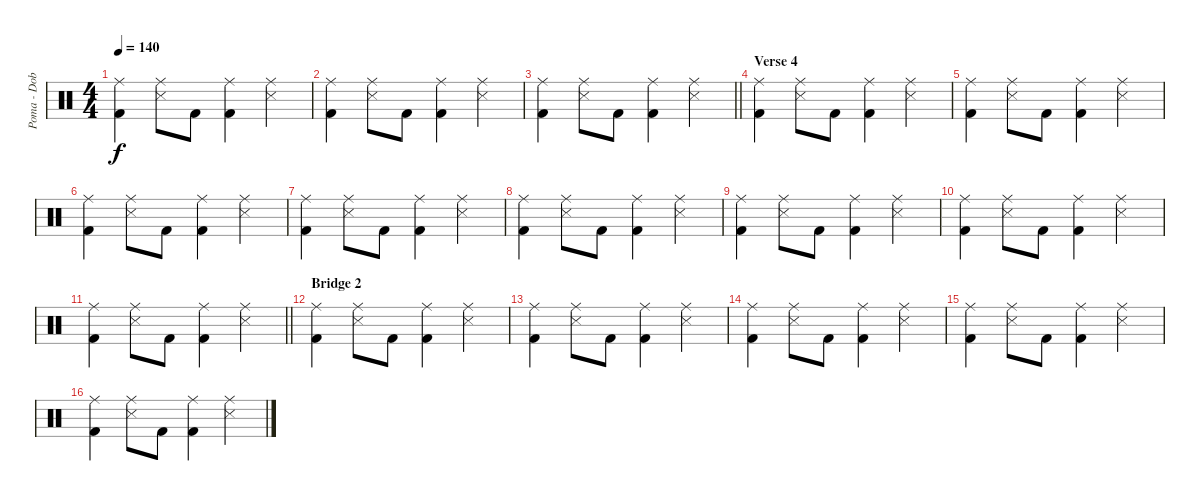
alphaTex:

\track ("Poma - Dob" "Poma - Dob") {instrument percussion}
\staff {score}
\articulation defaults
\ts (4 4)
\tempo 140
\clef neutral
\ks c
("Ride (middle)" "Kick (hit) 2").4{dy f} ("Ride (middle)" "Snare (side stick) 3").8 "Kick (hit) 2".8 ("Ride (middle)" "Kick (hit) 2").4 ("Ride (middle)" "Snare (side stick) 3").4 |
("Ride (middle)" "Kick (hit) 2").4 ("Ride (middle)" "Snare (side stick) 3").8 "Kick (hit) 2".8 ("Ride (middle)" "Kick (hit) 2").4 ("Ride (middle)" "Snare (side stick) 3").4 |
\barLineRight lightlight
("Ride (middle)" "Kick (hit) 2").4 ("Ride (middle)" "Snare (side stick) 3").8 "Kick (hit) 2".8 ("Ride (middle)" "Kick (hit) 2").4 ("Ride (middle)" "Snare (side stick) 3").4 |
\section ("" "Verse 4")
("Ride (middle)" "Kick (hit) 2").4 ("Ride (middle)" "Snare (side stick) 3").8 "Kick (hit) 2".8 ("Ride (middle)" "Kick (hit) 2").4 ("Ride (middle)" "Snare (side stick) 3").4 |
("Ride (middle)" "Kick (hit) 2").4 ("Ride (middle)" "Snare (side stick) 3").8 "Kick (hit) 2".8 ("Ride (middle)" "Kick (hit) 2").4 ("Ride (middle)" "Snare (side stick) 3").4 |
("Ride (middle)" "Kick (hit) 2").4 ("Ride (middle)" "Snare (side stick) 3").8 "Kick (hit) 2".8 ("Ride (middle)" "Kick (hit) 2").4 ("Ride (middle)" "Snare (side stick) 3").4 |
("Ride (middle)" "Kick (hit) 2").4 ("Ride (middle)" "Snare (side stick) 3").8 "Kick (hit) 2".8 ("Ride (middle)" "Kick (hit) 2").4 ("Ride (middle)" "Snare (side stick) 3").4 |
("Ride (middle)" "Kick (hit) 2").4 ("Ride (middle)" "Snare (side stick) 3").8 "Kick (hit) 2".8 ("Ride (middle)" "Kick (hit) 2").4 ("Ride (middle)" "Snare (side stick) 3").4 |
("Ride (middle)" "Kick (hit) 2").4 ("Ride (middle)" "Snare (side stick) 3").8 "Kick (hit) 2".8 ("Ride (middle)" "Kick (hit) 2").4 ("Ride (middle)" "Snare (side stick) 3").4 |
("Ride (middle)" "Kick (hit) 2").4 ("Ride (middle)" "Snare (side stick) 3").8 "Kick (hit) 2".8 ("Ride (middle)" "Kick (hit) 2").4 ("Ride (middle)" "Snare (side stick) 3").4 |
\barLineRight lightlight
("Ride (middle)" "Kick (hit) 2").4 ("Ride (middle)" "Snare (side stick) 3").8 "Kick (hit) 2".8 ("Ride (middle)" "Kick (hit) 2").4 ("Ride (middle)" "Snare (side stick) 3").4 |
\section ("" "Bridge 2")
("Ride (middle)" "Kick (hit) 2").4 ("Ride (middle)" "Snare (side stick) 3").8 "Kick (hit) 2".8 ("Ride (middle)" "Kick (hit) 2").4 ("Ride (middle)" "Snare (side stick) 3").4 |
("Ride (middle)" "Kick (hit) 2").4 ("Ride (middle)" "Snare (side stick) 3").8 "Kick (hit) 2".8 ("Ride (middle)" "Kick (hit) 2").4 ("Ride (middle)" "Snare (side stick) 3").4 |
("Ride (middle)" "Kick (hit) 2").4 ("Ride (middle)" "Snare (side stick) 3").8 "Kick (hit) 2".8 ("Ride (middle)" "Kick (hit) 2").4 ("Ride (middle)" "Snare (side stick) 3").4 |
("Ride (middle)" "Kick (hit) 2").4 ("Ride (middle)" "Snare (side stick) 3").8 "Kick (hit) 2".8 ("Ride (middle)" "Kick (hit) 2").4 ("Ride (middle)" "Snare (side stick) 3").4 |
("Ride (middle)" "Kick (hit) 2").4 ("Ride (middle)" "Snare (side stick) 3").8 "Kick (hit) 2".8 ("Ride (middle)" "Kick (hit) 2").4 ("Ride (middle)" "Snare (side stick) 3").4
